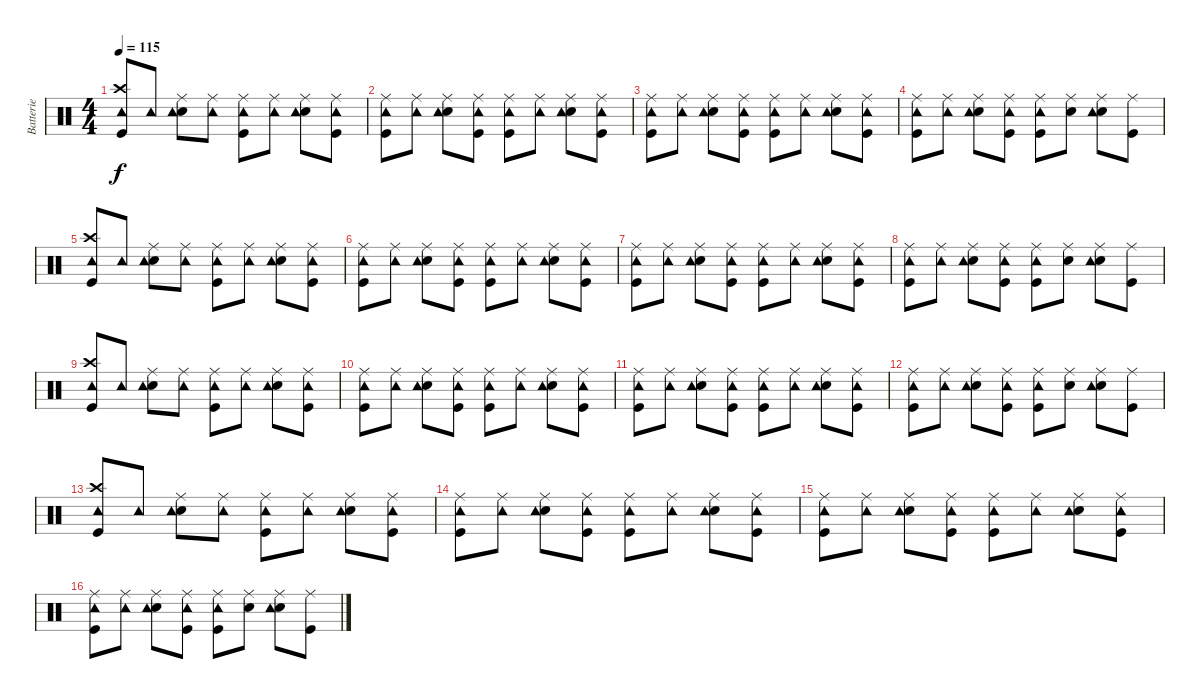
\track ("Batterie" "Batterie") {instrument percussion}
\staff {score}
\articulation defaults
\ts (4 4)
\tempo 115
\clef neutral
\ks c
("Kick (hit)" "Crash high (hit)" "Tambourine (hit)").8{dy f} "Tambourine (hit)".8 ("Electric Snare (hit)" "Ride (middle)" "Tambourine (hit)").8 ("Ride (middle)" "Tambourine (hit)").8 ("Ride (middle)" "Kick (hit)" "Tambourine (hit)").8 ("Ride (middle)" "Tambourine (hit)").8 ("Electric Snare (hit)" "Ride (middle)" "Tambourine (hit)").8 ("Kick (hit)" "Ride (middle)" "Tambourine (hit)").8 |
("Kick (hit)" "Ride (middle)" "Tambourine (hit)").8 ("Ride (middle)" "Tambourine (hit)").8 ("Electric Snare (hit)" "Ride (middle)" "Tambourine (hit)").8 ("Kick (hit)" "Ride (middle)" "Tambourine (hit)").8 ("Kick (hit)" "Ride (middle)" "Tambourine (hit)").8 ("Ride (middle)" "Tambourine (hit)").8 ("Electric Snare (hit)" "Ride (middle)" "Tambourine (hit)").8 ("Ride (middle)" "Kick (hit)" "Tambourine (hit)").8 |
("Kick (hit)" "Ride (middle)" "Tambourine (hit)").8 ("Ride (middle)" "Tambourine (hit)").8 ("Electric Snare (hit)" "Ride (middle)" "Tambourine (hit)").8 ("Kick (hit)" "Ride (middle)" "Tambourine (hit)").8 ("Kick (hit)" "Ride (middle)" "Tambourine (hit)").8 ("Ride (middle)" "Tambourine (hit)").8 ("Ride (middle)" "Electric Snare (hit)" "Tambourine (hit)").8 ("Kick (hit)" "Ride (middle)" "Tambourine (hit)").8 |
("Kick (hit)" "Ride (middle)" "Tambourine (hit)").8 ("Ride (middle)" "Tambourine (hit)").8 ("Electric Snare (hit)" "Ride (middle)" "Tambourine (hit)").8 ("Kick (hit)" "Ride (middle)" "Tambourine (hit)").8 ("Kick (hit)" "Ride (middle)" "Tambourine (hit)").8 ("Electric Snare (hit)" "Ride (middle)").8 ("Ride (middle)" "Electric Snare (hit)" "Tambourine (hit)").8 ("Ride (middle)" "Kick (hit)").8 |
("Kick (hit)" "Crash high (hit)" "Tambourine (hit)").8 "Tambourine (hit)".8 ("Electric Snare (hit)" "Ride (middle)" "Tambourine (hit)").8 ("Ride (middle)" "Tambourine (hit)").8 ("Ride (middle)" "Kick (hit)" "Tambourine (hit)").8 ("Ride (middle)" "Tambourine (hit)").8 ("Electric Snare (hit)" "Ride (middle)" "Tambourine (hit)").8 ("Kick (hit)" "Ride (middle)" "Tambourine (hit)").8 |
("Kick (hit)" "Ride (middle)" "Tambourine (hit)").8 ("Ride (middle)" "Tambourine (hit)").8 ("Electric Snare (hit)" "Ride (middle)" "Tambourine (hit)").8 ("Kick (hit)" "Ride (middle)" "Tambourine (hit)").8 ("Kick (hit)" "Ride (middle)" "Tambourine (hit)").8 ("Ride (middle)" "Tambourine (hit)").8 ("Electric Snare (hit)" "Ride (middle)" "Tambourine (hit)").8 ("Ride (middle)" "Kick (hit)" "Tambourine (hit)").8 |
("Kick (hit)" "Ride (middle)" "Tambourine (hit)").8 ("Ride (middle)" "Tambourine (hit)").8 ("Electric Snare (hit)" "Ride (middle)" "Tambourine (hit)").8 ("Kick (hit)" "Ride (middle)" "Tambourine (hit)").8 ("Kick (hit)" "Ride (middle)" "Tambourine (hit)").8 ("Ride (middle)" "Tambourine (hit)").8 ("Ride (middle)" "Electric Snare (hit)" "Tambourine (hit)").8 ("Kick (hit)" "Ride (middle)" "Tambourine (hit)").8 |
("Kick (hit)" "Ride (middle)" "Tambourine (hit)").8 ("Ride (middle)" "Tambourine (hit)").8 ("Electric Snare (hit)" "Ride (middle)" "Tambourine (hit)").8 ("Kick (hit)" "Ride (middle)" "Tambourine (hit)").8 ("Kick (hit)" "Ride (middle)" "Tambourine (hit)").8 ("Electric Snare (hit)" "Ride (middle)").8 ("Ride (middle)" "Electric Snare (hit)" "Tambourine (hit)").8 ("Ride (middle)" "Kick (hit)").8 |
("Kick (hit)" "Crash high (hit)" "Tambourine (hit)").8 "Tambourine (hit)".8 ("Electric Snare (hit)" "Ride (middle)" "Tambourine (hit)").8 ("Ride (middle)" "Tambourine (hit)").8 ("Ride (middle)" "Kick (hit)" "Tambourine (hit)").8 ("Ride (middle)" "Tambourine (hit)").8 ("Electric Snare (hit)" "Ride (middle)" "Tambourine (hit)").8 ("Kick (hit)" "Ride (middle)" "Tambourine (hit)").8 |
("Kick (hit)" "Ride (middle)" "Tambourine (hit)").8 ("Ride (middle)" "Tambourine (hit)").8 ("Electric Snare (hit)" "Ride (middle)" "Tambourine (hit)").8 ("Kick (hit)" "Ride (middle)" "Tambourine (hit)").8 ("Kick (hit)" "Ride (middle)" "Tambourine (hit)").8 ("Ride (middle)" "Tambourine (hit)").8 ("Electric Snare (hit)" "Ride (middle)" "Tambourine (hit)").8 ("Ride (middle)" "Kick (hit)" "Tambourine (hit)").8 |
("Kick (hit)" "Ride (middle)" "Tambourine (hit)").8 ("Ride (middle)" "Tambourine (hit)").8 ("Electric Snare (hit)" "Ride (middle)" "Tambourine (hit)").8 ("Kick (hit)" "Ride (middle)" "Tambourine (hit)").8 ("Kick (hit)" "Ride (middle)" "Tambourine (hit)").8 ("Ride (middle)" "Tambourine (hit)").8 ("Ride (middle)" "Electric Snare (hit)" "Tambourine (hit)").8 ("Kick (hit)" "Ride (middle)" "Tambourine (hit)").8 |
("Kick (hit)" "Ride (middle)" "Tambourine (hit)").8 ("Ride (middle)" "Tambourine (hit)").8 ("Electric Snare (hit)" "Ride (middle)" "Tambourine (hit)").8 ("Kick (hit)" "Ride (middle)" "Tambourine (hit)").8 ("Kick (hit)" "Ride (middle)" "Tambourine (hit)").8 ("Electric Snare (hit)" "Ride (middle)").8 ("Ride (middle)" "Electric Snare (hit)" "Tambourine (hit)").8 ("Ride (middle)" "Kick (hit)").8 |
("Kick (hit)" "Crash high (hit)" "Tambourine (hit)").8 "Tambourine (hit)".8 ("Electric Snare (hit)" "Ride (middle)" "Tambourine (hit)").8 ("Ride (middle)" "Tambourine (hit)").8 ("Ride (middle)" "Kick (hit)" "Tambourine (hit)").8 ("Ride (middle)" "Tambourine (hit)").8 ("Electric Snare (hit)" "Ride (middle)" "Tambourine (hit)").8 ("Kick (hit)" "Ride (middle)" "Tambourine (hit)").8 |
("Kick (hit)" "Ride (middle)" "Tambourine (hit)").8 ("Ride (middle)" "Tambourine (hit)").8 ("Electric Snare (hit)" "Ride (middle)" "Tambourine (hit)").8 ("Kick (hit)" "Ride (middle)" "Tambourine (hit)").8 ("Kick (hit)" "Ride (middle)" "Tambourine (hit)").8 ("Ride (middle)" "Tambourine (hit)").8 ("Electric Snare (hit)" "Ride (middle)" "Tambourine (hit)").8 ("Ride (middle)" "Kick (hit)" "Tambourine (hit)").8 |
("Kick (hit)" "Ride (middle)" "Tambourine (hit)").8 ("Ride (middle)" "Tambourine (hit)").8 ("Electric Snare (hit)" "Ride (middle)" "Tambourine (hit)").8 ("Kick (hit)" "Ride (middle)" "Tambourine (hit)").8 ("Kick (hit)" "Ride (middle)" "Tambourine (hit)").8 ("Ride (middle)" "Tambourine (hit)").8 ("Ride (middle)" "Electric Snare (hit)" "Tambourine (hit)").8 ("Kick (hit)" "Ride (middle)" "Tambourine (hit)").8 |
("Kick (hit)" "Ride (middle)" "Tambourine (hit)").8 ("Ride (middle)" "Tambourine (hit)").8 ("Electric Snare (hit)" "Ride (middle)" "Tambourine (hit)").8 ("Kick (hit)" "Ride (middle)" "Tambourine (hit)").8 ("Kick (hit)" "Ride (middle)" "Tambourine (hit)").8 ("Electric Snare (hit)" "Ride (middle)").8 ("Ride (middle)" "Electric Snare (hit)" "Tambourine (hit)").8 ("Ride (middle)" "Kick (hit)").8
